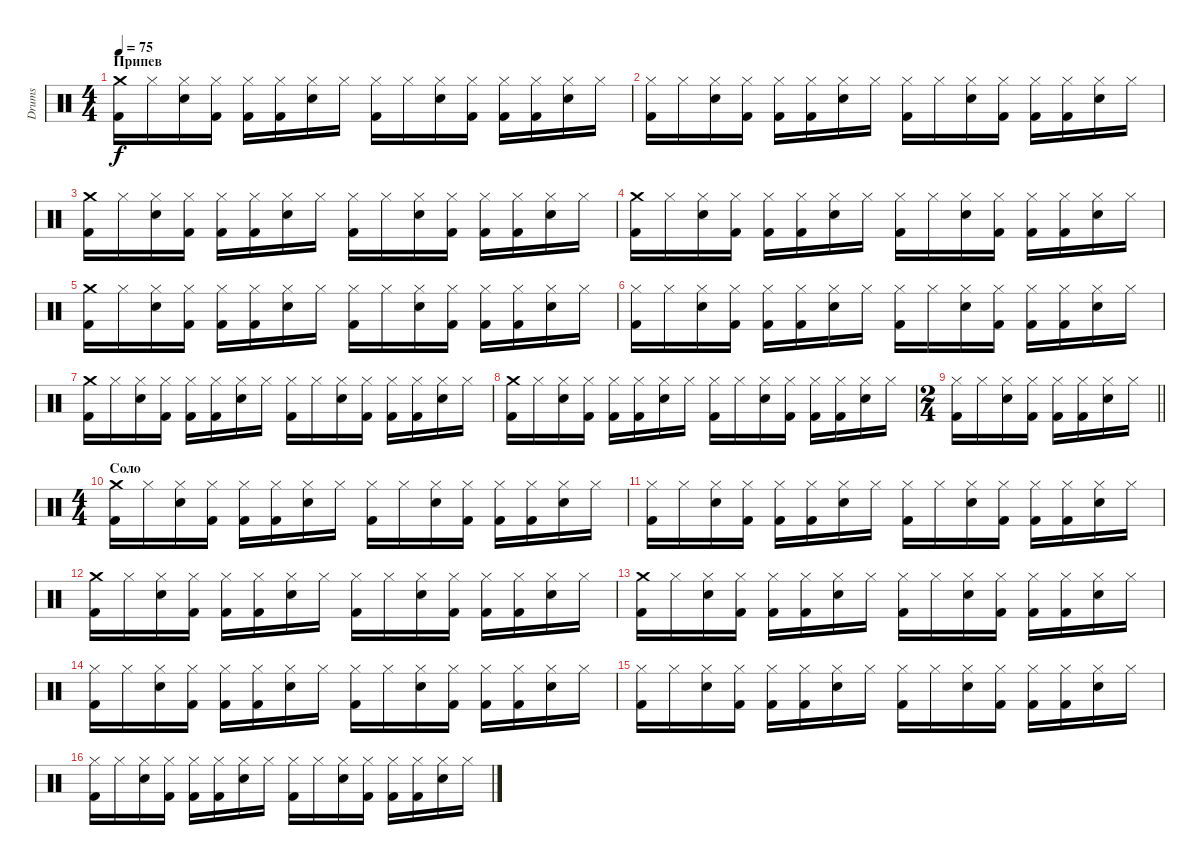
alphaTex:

\track ("Drums" "Drums") {instrument percussion}
\staff {score}
\articulation defaults
\ts (4 4)
\section ("" "Припев")
\tempo 75
\clef neutral
\ks c
("Crash medium (hit)" "Kick (hit) 2").16{dy f} "Hi-Hat (closed)".16 ("Hi-Hat (closed)" "Snare (hit) 2").16 ("Hi-Hat (closed)" "Kick (hit) 2").16 ("Hi-Hat (closed)" "Kick (hit) 2").16 ("Hi-Hat (closed)" "Kick (hit) 2").16 ("Hi-Hat (closed)" "Snare (hit) 2").16 "Hi-Hat (closed)".16 ("Hi-Hat (closed)" "Kick (hit) 2").16 "Hi-Hat (closed)".16 ("Hi-Hat (closed)" "Snare (hit) 2").16 ("Hi-Hat (closed)" "Kick (hit) 2").16 ("Hi-Hat (closed)" "Kick (hit) 2").16 ("Hi-Hat (closed)" "Kick (hit) 2").16 ("Hi-Hat (closed)" "Snare (hit) 2").16 "Hi-Hat (closed)".16 |
("Hi-Hat (closed)" "Kick (hit) 2").16 "Hi-Hat (closed)".16 ("Hi-Hat (closed)" "Snare (hit) 2").16 ("Hi-Hat (closed)" "Kick (hit) 2").16 ("Hi-Hat (closed)" "Kick (hit) 2").16 ("Hi-Hat (closed)" "Kick (hit) 2").16 ("Hi-Hat (closed)" "Snare (hit) 2").16 "Hi-Hat (closed)".16 ("Hi-Hat (closed)" "Kick (hit) 2").16 "Hi-Hat (closed)".16 ("Hi-Hat (closed)" "Snare (hit) 2").16 ("Hi-Hat (closed)" "Kick (hit) 2").16 ("Hi-Hat (closed)" "Kick (hit) 2").16 ("Hi-Hat (closed)" "Kick (hit) 2").16 ("Hi-Hat (closed)" "Snare (hit) 2").16 "Hi-Hat (closed)".16 |
("Crash medium (hit)" "Kick (hit) 2").16 "Hi-Hat (closed)".16 ("Hi-Hat (closed)" "Snare (hit) 2").16 ("Hi-Hat (closed)" "Kick (hit) 2").16 ("Hi-Hat (closed)" "Kick (hit) 2").16 ("Hi-Hat (closed)" "Kick (hit) 2").16 ("Hi-Hat (closed)" "Snare (hit) 2").16 "Hi-Hat (closed)".16 ("Hi-Hat (closed)" "Kick (hit) 2").16 "Hi-Hat (closed)".16 ("Hi-Hat (closed)" "Snare (hit) 2").16 ("Hi-Hat (closed)" "Kick (hit) 2").16 ("Hi-Hat (closed)" "Kick (hit) 2").16 ("Hi-Hat (closed)" "Kick (hit) 2").16 ("Hi-Hat (closed)" "Snare (hit) 2").16 "Hi-Hat (closed)".16 |
("Crash medium (hit)" "Kick (hit) 2").16 "Hi-Hat (closed)".16 ("Hi-Hat (closed)" "Snare (hit) 2").16 ("Hi-Hat (closed)" "Kick (hit) 2").16 ("Hi-Hat (closed)" "Kick (hit) 2").16 ("Hi-Hat (closed)" "Kick (hit) 2").16 ("Hi-Hat (closed)" "Snare (hit) 2").16 "Hi-Hat (closed)".16 ("Hi-Hat (closed)" "Kick (hit) 2").16 "Hi-Hat (closed)".16 ("Hi-Hat (closed)" "Snare (hit) 2").16 ("Hi-Hat (closed)" "Kick (hit) 2").16 ("Hi-Hat (closed)" "Kick (hit) 2").16 ("Hi-Hat (closed)" "Kick (hit) 2").16 ("Hi-Hat (closed)" "Snare (hit) 2").16 "Hi-Hat (closed)".16 |
("Crash medium (hit)" "Kick (hit) 2").16 "Hi-Hat (closed)".16 ("Hi-Hat (closed)" "Snare (hit) 2").16 ("Hi-Hat (closed)" "Kick (hit) 2").16 ("Hi-Hat (closed)" "Kick (hit) 2").16 ("Hi-Hat (closed)" "Kick (hit) 2").16 ("Hi-Hat (closed)" "Snare (hit) 2").16 "Hi-Hat (closed)".16 ("Hi-Hat (closed)" "Kick (hit) 2").16 "Hi-Hat (closed)".16 ("Hi-Hat (closed)" "Snare (hit) 2").16 ("Hi-Hat (closed)" "Kick (hit) 2").16 ("Hi-Hat (closed)" "Kick (hit) 2").16 ("Hi-Hat (closed)" "Kick (hit) 2").16 ("Hi-Hat (closed)" "Snare (hit) 2").16 "Hi-Hat (closed)".16 |
("Hi-Hat (closed)" "Kick (hit) 2").16 "Hi-Hat (closed)".16 ("Hi-Hat (closed)" "Snare (hit) 2").16 ("Hi-Hat (closed)" "Kick (hit) 2").16 ("Hi-Hat (closed)" "Kick (hit) 2").16 ("Hi-Hat (closed)" "Kick (hit) 2").16 ("Hi-Hat (closed)" "Snare (hit) 2").16 "Hi-Hat (closed)".16 ("Hi-Hat (closed)" "Kick (hit) 2").16 "Hi-Hat (closed)".16 ("Hi-Hat (closed)" "Snare (hit) 2").16 ("Hi-Hat (closed)" "Kick (hit) 2").16 ("Hi-Hat (closed)" "Kick (hit) 2").16 ("Hi-Hat (closed)" "Kick (hit) 2").16 ("Hi-Hat (closed)" "Snare (hit) 2").16 "Hi-Hat (closed)".16 |
("Crash medium (hit)" "Kick (hit) 2").16 "Hi-Hat (closed)".16 ("Hi-Hat (closed)" "Snare (hit) 2").16 ("Hi-Hat (closed)" "Kick (hit) 2").16 ("Hi-Hat (closed)" "Kick (hit) 2").16 ("Hi-Hat (closed)" "Kick (hit) 2").16 ("Hi-Hat (closed)" "Snare (hit) 2").16 "Hi-Hat (closed)".16 ("Hi-Hat (closed)" "Kick (hit) 2").16 "Hi-Hat (closed)".16 ("Hi-Hat (closed)" "Snare (hit) 2").16 ("Hi-Hat (closed)" "Kick (hit) 2").16 ("Hi-Hat (closed)" "Kick (hit) 2").16 ("Hi-Hat (closed)" "Kick (hit) 2").16 ("Hi-Hat (closed)" "Snare (hit) 2").16 "Hi-Hat (closed)".16 |
("Crash medium (hit)" "Kick (hit) 2").16 "Hi-Hat (closed)".16 ("Hi-Hat (closed)" "Snare (hit) 2").16 ("Hi-Hat (closed)" "Kick (hit) 2").16 ("Hi-Hat (closed)" "Kick (hit) 2").16 ("Hi-Hat (closed)" "Kick (hit) 2").16 ("Hi-Hat (closed)" "Snare (hit) 2").16 "Hi-Hat (closed)".16 ("Hi-Hat (closed)" "Kick (hit) 2").16 "Hi-Hat (closed)".16 ("Hi-Hat (closed)" "Snare (hit) 2").16 ("Hi-Hat (closed)" "Kick (hit) 2").16 ("Hi-Hat (closed)" "Kick (hit) 2").16 ("Hi-Hat (closed)" "Kick (hit) 2").16 ("Hi-Hat (closed)" "Snare (hit) 2").16 "Hi-Hat (closed)".16 |
\ts (2 4)
\barLineRight lightlight
("Hi-Hat (closed)" "Kick (hit) 2").16 "Hi-Hat (closed)".16 ("Hi-Hat (closed)" "Snare (hit) 2").16 ("Hi-Hat (closed)" "Kick (hit) 2").16 ("Hi-Hat (closed)" "Kick (hit) 2").16 ("Hi-Hat (closed)" "Kick (hit) 2").16 ("Hi-Hat (closed)" "Snare (hit) 2").16 "Hi-Hat (closed)".16 |
\ts (4 4)
\section ("" "Соло")
("Crash medium (hit)" "Kick (hit) 2").16 "Hi-Hat (closed)".16 ("Hi-Hat (closed)" "Snare (hit) 2").16 ("Hi-Hat (closed)" "Kick (hit) 2").16 ("Hi-Hat (closed)" "Kick (hit) 2").16 ("Hi-Hat (closed)" "Kick (hit) 2").16 ("Hi-Hat (closed)" "Snare (hit) 2").16 "Hi-Hat (closed)".16 ("Hi-Hat (closed)" "Kick (hit) 2").16 "Hi-Hat (closed)".16 ("Hi-Hat (closed)" "Snare (hit) 2").16 ("Hi-Hat (closed)" "Kick (hit) 2").16 ("Hi-Hat (closed)" "Kick (hit) 2").16 ("Hi-Hat (closed)" "Kick (hit) 2").16 ("Hi-Hat (closed)" "Snare (hit) 2").16 "Hi-Hat (closed)".16 |
("Hi-Hat (closed)" "Kick (hit) 2").16 "Hi-Hat (closed)".16 ("Hi-Hat (closed)" "Snare (hit) 2").16 ("Hi-Hat (closed)" "Kick (hit) 2").16 ("Hi-Hat (closed)" "Kick (hit) 2").16 ("Hi-Hat (closed)" "Kick (hit) 2").16 ("Hi-Hat (closed)" "Snare (hit) 2").16 "Hi-Hat (closed)".16 ("Hi-Hat (closed)" "Kick (hit) 2").16 "Hi-Hat (closed)".16 ("Hi-Hat (closed)" "Snare (hit) 2").16 ("Hi-Hat (closed)" "Kick (hit) 2").16 ("Hi-Hat (closed)" "Kick (hit) 2").16 ("Hi-Hat (closed)" "Kick (hit) 2").16 ("Hi-Hat (closed)" "Snare (hit) 2").16 "Hi-Hat (closed)".16 |
("Crash medium (hit)" "Kick (hit) 2").16 "Hi-Hat (closed)".16 ("Hi-Hat (closed)" "Snare (hit) 2").16 ("Hi-Hat (closed)" "Kick (hit) 2").16 ("Hi-Hat (closed)" "Kick (hit) 2").16 ("Hi-Hat (closed)" "Kick (hit) 2").16 ("Hi-Hat (closed)" "Snare (hit) 2").16 "Hi-Hat (closed)".16 ("Hi-Hat (closed)" "Kick (hit) 2").16 "Hi-Hat (closed)".16 ("Hi-Hat (closed)" "Snare (hit) 2").16 ("Hi-Hat (closed)" "Kick (hit) 2").16 ("Hi-Hat (closed)" "Kick (hit) 2").16 ("Hi-Hat (closed)" "Kick (hit) 2").16 ("Hi-Hat (closed)" "Snare (hit) 2").16 "Hi-Hat (closed)".16 |
("Crash medium (hit)" "Kick (hit) 2").16 "Hi-Hat (closed)".16 ("Hi-Hat (closed)" "Snare (hit) 2").16 ("Hi-Hat (closed)" "Kick (hit) 2").16 ("Hi-Hat (closed)" "Kick (hit) 2").16 ("Hi-Hat (closed)" "Kick (hit) 2").16 ("Hi-Hat (closed)" "Snare (hit) 2").16 "Hi-Hat (closed)".16 ("Hi-Hat (closed)" "Kick (hit) 2").16 "Hi-Hat (closed)".16 ("Hi-Hat (closed)" "Snare (hit) 2").16 ("Hi-Hat (closed)" "Kick (hit) 2").16 ("Hi-Hat (closed)" "Kick (hit) 2").16 ("Hi-Hat (closed)" "Kick (hit) 2").16 ("Hi-Hat (closed)" "Snare (hit) 2").16 "Hi-Hat (closed)".16 |
("Hi-Hat (closed)" "Kick (hit) 2").16 "Hi-Hat (closed)".16 ("Hi-Hat (closed)" "Snare (hit) 2").16 ("Hi-Hat (closed)" "Kick (hit) 2").16 ("Hi-Hat (closed)" "Kick (hit) 2").16 ("Hi-Hat (closed)" "Kick (hit) 2").16 ("Hi-Hat (closed)" "Snare (hit) 2").16 "Hi-Hat (closed)".16 ("Hi-Hat (closed)" "Kick (hit) 2").16 "Hi-Hat (closed)".16 ("Hi-Hat (closed)" "Snare (hit) 2").16 ("Hi-Hat (closed)" "Kick (hit) 2").16 ("Hi-Hat (closed)" "Kick (hit) 2").16 ("Hi-Hat (closed)" "Kick (hit) 2").16 ("Hi-Hat (closed)" "Snare (hit) 2").16 "Hi-Hat (closed)".16 |
("Hi-Hat (closed)" "Kick (hit) 2").16 "Hi-Hat (closed)".16 ("Hi-Hat (closed)" "Snare (hit) 2").16 ("Hi-Hat (closed)" "Kick (hit) 2").16 ("Hi-Hat (closed)" "Kick (hit) 2").16 ("Hi-Hat (closed)" "Kick (hit) 2").16 ("Hi-Hat (closed)" "Snare (hit) 2").16 "Hi-Hat (closed)".16 ("Hi-Hat (closed)" "Kick (hit) 2").16 "Hi-Hat (closed)".16 ("Hi-Hat (closed)" "Snare (hit) 2").16 ("Hi-Hat (closed)" "Kick (hit) 2").16 ("Hi-Hat (closed)" "Kick (hit) 2").16 ("Hi-Hat (closed)" "Kick (hit) 2").16 ("Hi-Hat (closed)" "Snare (hit) 2").16 "Hi-Hat (closed)".16 |
("Hi-Hat (closed)" "Kick (hit) 2").16 "Hi-Hat (closed)".16 ("Hi-Hat (closed)" "Snare (hit) 2").16 ("Hi-Hat (closed)" "Kick (hit) 2").16 ("Hi-Hat (closed)" "Kick (hit) 2").16 ("Hi-Hat (closed)" "Kick (hit) 2").16 ("Hi-Hat (closed)" "Snare (hit) 2").16 "Hi-Hat (closed)".16 ("Hi-Hat (closed)" "Kick (hit) 2").16 "Hi-Hat (closed)".16 ("Hi-Hat (closed)" "Snare (hit) 2").16 ("Hi-Hat (closed)" "Kick (hit) 2").16 ("Hi-Hat (closed)" "Kick (hit) 2").16 ("Hi-Hat (closed)" "Kick (hit) 2").16 ("Hi-Hat (closed)" "Snare (hit) 2").16 "Hi-Hat (closed)".16
